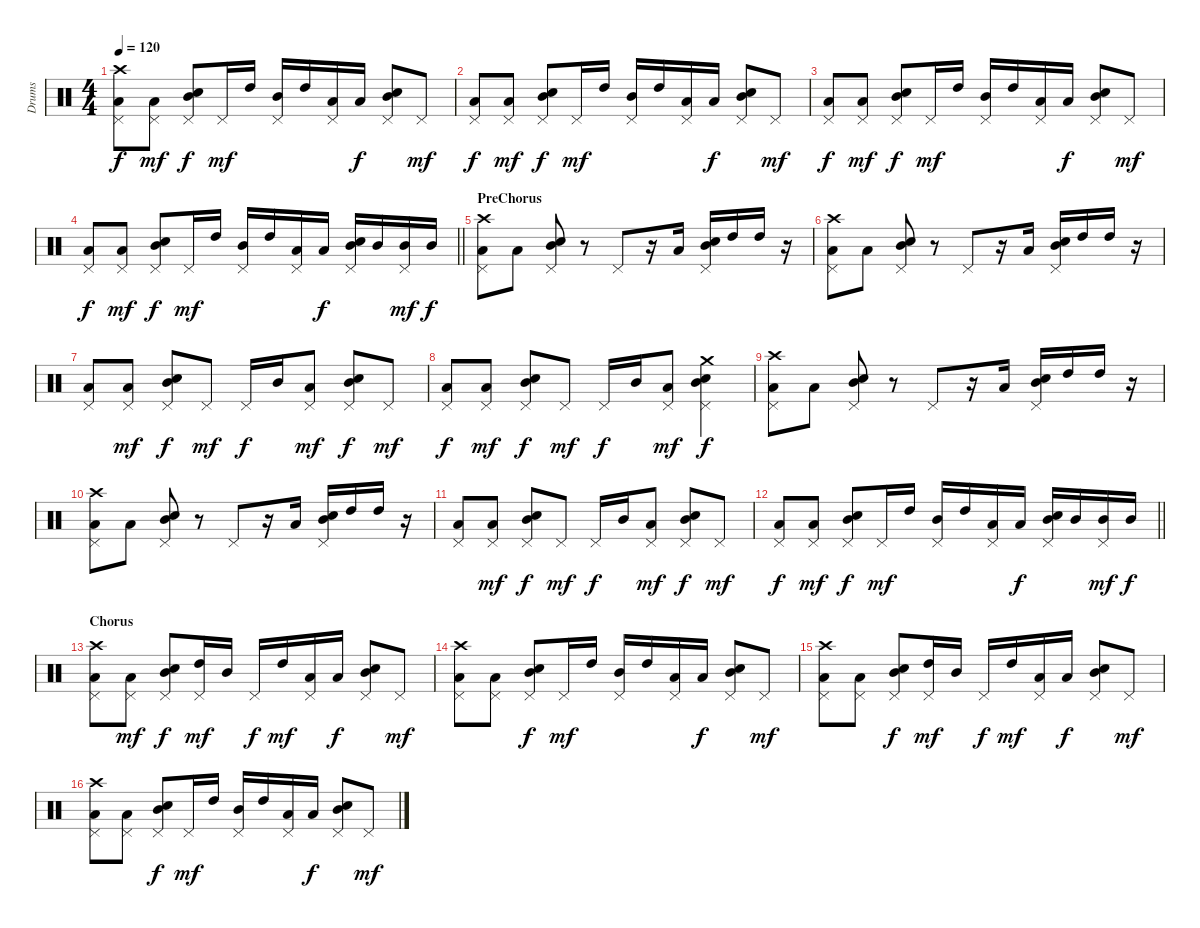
\track ("Drums" "Drums") {instrument percussion}
\staff {score}
\articulation defaults
\ts (4 4)
\tempo 120
\clef neutral
\ks c
("Crash high (hit)" "Pedal Hi-Hat (hit)" "Low Tom (hit)").8{dy f} ("Pedal Hi-Hat (hit)" "Low Tom (hit)").8{dy mf} ("Pedal Hi-Hat (hit)" "Mid Tom (hit)" "Electric Snare (hit)").8{dy f} "Pedal Hi-Hat (hit)".16{dy mf} "High Tom (hit)".16 ("Pedal Hi-Hat (hit)" "Mid Tom (hit)").16 "High Tom (hit)".16 ("Pedal Hi-Hat (hit)" "Low Tom (hit)").16 "Low Tom (hit)".16{dy f} ("Pedal Hi-Hat (hit)" "Mid Tom (hit)" "Electric Snare (hit)").8 "Pedal Hi-Hat (hit)".8{dy mf} |
("Pedal Hi-Hat (hit)" "Low Tom (hit)").8{dy f} ("Pedal Hi-Hat (hit)" "Low Tom (hit)").8{dy mf} ("Pedal Hi-Hat (hit)" "Mid Tom (hit)" "Electric Snare (hit)").8{dy f} "Pedal Hi-Hat (hit)".16{dy mf} "High Tom (hit)".16 ("Pedal Hi-Hat (hit)" "Mid Tom (hit)").16 "High Tom (hit)".16 ("Pedal Hi-Hat (hit)" "Low Tom (hit)").16 "Low Tom (hit)".16{dy f} ("Pedal Hi-Hat (hit)" "Mid Tom (hit)" "Electric Snare (hit)").8 "Pedal Hi-Hat (hit)".8{dy mf} |
("Pedal Hi-Hat (hit)" "Low Tom (hit)").8{dy f} ("Pedal Hi-Hat (hit)" "Low Tom (hit)").8{dy mf} ("Pedal Hi-Hat (hit)" "Mid Tom (hit)" "Electric Snare (hit)").8{dy f} "Pedal Hi-Hat (hit)".16{dy mf} "High Tom (hit)".16 ("Pedal Hi-Hat (hit)" "Mid Tom (hit)").16 "High Tom (hit)".16 ("Pedal Hi-Hat (hit)" "Low Tom (hit)").16 "Low Tom (hit)".16{dy f} ("Pedal Hi-Hat (hit)" "Mid Tom (hit)" "Electric Snare (hit)").8 "Pedal Hi-Hat (hit)".8{dy mf} |
\barLineRight lightlight
("Pedal Hi-Hat (hit)" "Low Tom (hit)").8{dy f} ("Pedal Hi-Hat (hit)" "Low Tom (hit)").8{dy mf} ("Pedal Hi-Hat (hit)" "Mid Tom (hit)" "Electric Snare (hit)").8{dy f} "Pedal Hi-Hat (hit)".16{dy mf} "High Tom (hit)".16 ("Pedal Hi-Hat (hit)" "Mid Tom (hit)").16 "High Tom (hit)".16 ("Pedal Hi-Hat (hit)" "Low Tom (hit)").16 "Low Tom (hit)".16{dy f} ("Pedal Hi-Hat (hit)" "Mid Tom (hit)" "Electric Snare (hit)").16 "Mid Tom (hit)".16 ("Pedal Hi-Hat (hit)" "Mid Tom (hit)").16{dy mf} "Mid Tom (hit)".16{dy f} |
\section ("" "PreChorus")
("Crash high (hit)" "Pedal Hi-Hat (hit)" "Low Tom (hit)").8 "Low Tom (hit)".8 ("Pedal Hi-Hat (hit)" "Mid Tom (hit)" "Electric Snare (hit)").8 r.8 "Pedal Hi-Hat (hit)".8 r.16 "Low Tom (hit)".16 ("Pedal Hi-Hat (hit)" "Mid Tom (hit)" "Electric Snare (hit)").16 "High Tom (hit)".16 "High Tom (hit)".16 r.16 |
("Crash high (hit)" "Pedal Hi-Hat (hit)" "Low Tom (hit)").8 "Low Tom (hit)".8 ("Pedal Hi-Hat (hit)" "Mid Tom (hit)" "Electric Snare (hit)").8 r.8 "Pedal Hi-Hat (hit)".8 r.16 "Low Tom (hit)".16 ("Pedal Hi-Hat (hit)" "Mid Tom (hit)" "Electric Snare (hit)").16 "High Tom (hit)".16 "High Tom (hit)".16 r.16 |
("Pedal Hi-Hat (hit)" "Low Tom (hit)").8 ("Pedal Hi-Hat (hit)" "Low Tom (hit)").8{dy mf} ("Pedal Hi-Hat (hit)" "Mid Tom (hit)" "Electric Snare (hit)").8{dy f} "Pedal Hi-Hat (hit)".8{dy mf} "Pedal Hi-Hat (hit)".16{dy f} "Mid Tom (hit)".16 ("Pedal Hi-Hat (hit)" "Low Tom (hit)").8{dy mf} ("Pedal Hi-Hat (hit)" "Mid Tom (hit)" "Electric Snare (hit)").8{dy f} "Pedal Hi-Hat (hit)".8{dy mf} |
("Pedal Hi-Hat (hit)" "Low Tom (hit)").8{dy f} ("Pedal Hi-Hat (hit)" "Low Tom (hit)").8{dy mf} ("Pedal Hi-Hat (hit)" "Mid Tom (hit)" "Electric Snare (hit)").8{dy f} "Pedal Hi-Hat (hit)".8{dy mf} "Pedal Hi-Hat (hit)".16{dy f} "Mid Tom (hit)".16 ("Pedal Hi-Hat (hit)" "Low Tom (hit)").8{dy mf} ("Crash medium (hit)" "Pedal Hi-Hat (hit)" "Mid Tom (hit)" "Electric Snare (hit)").4{dy f} |
("Crash high (hit)" "Pedal Hi-Hat (hit)" "Low Tom (hit)").8 "Low Tom (hit)".8 ("Pedal Hi-Hat (hit)" "Mid Tom (hit)" "Electric Snare (hit)").8 r.8 "Pedal Hi-Hat (hit)".8 r.16 "Low Tom (hit)".16 ("Pedal Hi-Hat (hit)" "Mid Tom (hit)" "Electric Snare (hit)").16 "High Tom (hit)".16 "High Tom (hit)".16 r.16 |
("Crash high (hit)" "Pedal Hi-Hat (hit)" "Low Tom (hit)").8 "Low Tom (hit)".8 ("Pedal Hi-Hat (hit)" "Mid Tom (hit)" "Electric Snare (hit)").8 r.8 "Pedal Hi-Hat (hit)".8 r.16 "Low Tom (hit)".16 ("Pedal Hi-Hat (hit)" "Mid Tom (hit)" "Electric Snare (hit)").16 "High Tom (hit)".16 "High Tom (hit)".16 r.16 |
("Pedal Hi-Hat (hit)" "Low Tom (hit)").8 ("Pedal Hi-Hat (hit)" "Low Tom (hit)").8{dy mf} ("Pedal Hi-Hat (hit)" "Mid Tom (hit)" "Electric Snare (hit)").8{dy f} "Pedal Hi-Hat (hit)".8{dy mf} "Pedal Hi-Hat (hit)".16{dy f} "Mid Tom (hit)".16 ("Pedal Hi-Hat (hit)" "Low Tom (hit)").8{dy mf} ("Pedal Hi-Hat (hit)" "Mid Tom (hit)" "Electric Snare (hit)").8{dy f} "Pedal Hi-Hat (hit)".8{dy mf} |
\barLineRight lightlight
("Pedal Hi-Hat (hit)" "Low Tom (hit)").8{dy f} ("Pedal Hi-Hat (hit)" "Low Tom (hit)").8{dy mf} ("Pedal Hi-Hat (hit)" "Mid Tom (hit)" "Electric Snare (hit)").8{dy f} "Pedal Hi-Hat (hit)".16{dy mf} "High Tom (hit)".16 ("Pedal Hi-Hat (hit)" "Mid Tom (hit)").16 "High Tom (hit)".16 ("Pedal Hi-Hat (hit)" "Low Tom (hit)").16 "Low Tom (hit)".16{dy f} ("Pedal Hi-Hat (hit)" "Mid Tom (hit)" "Electric Snare (hit)").16 "Mid Tom (hit)".16 ("Pedal Hi-Hat (hit)" "Mid Tom (hit)").16{dy mf} "Mid Tom (hit)".16{dy f} |
\section ("" "Chorus")
("Crash high (hit)" "Pedal Hi-Hat (hit)" "Low Tom (hit)").8 ("Pedal Hi-Hat (hit)" "Low Tom (hit)").8{dy mf} ("Pedal Hi-Hat (hit)" "Mid Tom (hit)" "Electric Snare (hit)").8{dy f} ("Pedal Hi-Hat (hit)" "High Tom (hit)").16{dy mf} "Mid Tom (hit)".16 "Pedal Hi-Hat (hit)".16{dy f} "High Tom (hit)".16{dy mf} ("Pedal Hi-Hat (hit)" "Low Tom (hit)").16 "Low Tom (hit)".16{dy f} ("Pedal Hi-Hat (hit)" "Mid Tom (hit)" "Electric Snare (hit)").8 "Pedal Hi-Hat (hit)".8{dy mf} |
("Crash high (hit)" "Pedal Hi-Hat (hit)" "Low Tom (hit)").8 ("Pedal Hi-Hat (hit)" "Low Tom (hit)").8 ("Pedal Hi-Hat (hit)" "Mid Tom (hit)" "Electric Snare (hit)").8{dy f} "Pedal Hi-Hat (hit)".16{dy mf} "High Tom (hit)".16 ("Pedal Hi-Hat (hit)" "Mid Tom (hit)").16 "High Tom (hit)".16 ("Pedal Hi-Hat (hit)" "Low Tom (hit)").16 "Low Tom (hit)".16{dy f} ("Pedal Hi-Hat (hit)" "Mid Tom (hit)" "Electric Snare (hit)").8 "Pedal Hi-Hat (hit)".8{dy mf} |
("Crash high (hit)" "Pedal Hi-Hat (hit)" "Low Tom (hit)").8 ("Pedal Hi-Hat (hit)" "Low Tom (hit)").8 ("Pedal Hi-Hat (hit)" "Mid Tom (hit)" "Electric Snare (hit)").8{dy f} ("Pedal Hi-Hat (hit)" "High Tom (hit)").16{dy mf} "Mid Tom (hit)".16 "Pedal Hi-Hat (hit)".16{dy f} "High Tom (hit)".16{dy mf} ("Pedal Hi-Hat (hit)" "Low Tom (hit)").16 "Low Tom (hit)".16{dy f} ("Pedal Hi-Hat (hit)" "Mid Tom (hit)" "Electric Snare (hit)").8 "Pedal Hi-Hat (hit)".8{dy mf} |
("Crash high (hit)" "Pedal Hi-Hat (hit)" "Low Tom (hit)").8 ("Pedal Hi-Hat (hit)" "Low Tom (hit)").8 ("Pedal Hi-Hat (hit)" "Mid Tom (hit)" "Electric Snare (hit)").8{dy f} "Pedal Hi-Hat (hit)".16{dy mf} "High Tom (hit)".16 ("Pedal Hi-Hat (hit)" "Mid Tom (hit)").16 "High Tom (hit)".16 ("Pedal Hi-Hat (hit)" "Low Tom (hit)").16 "Low Tom (hit)".16{dy f} ("Pedal Hi-Hat (hit)" "Mid Tom (hit)" "Electric Snare (hit)").8 "Pedal Hi-Hat (hit)".8{dy mf}
